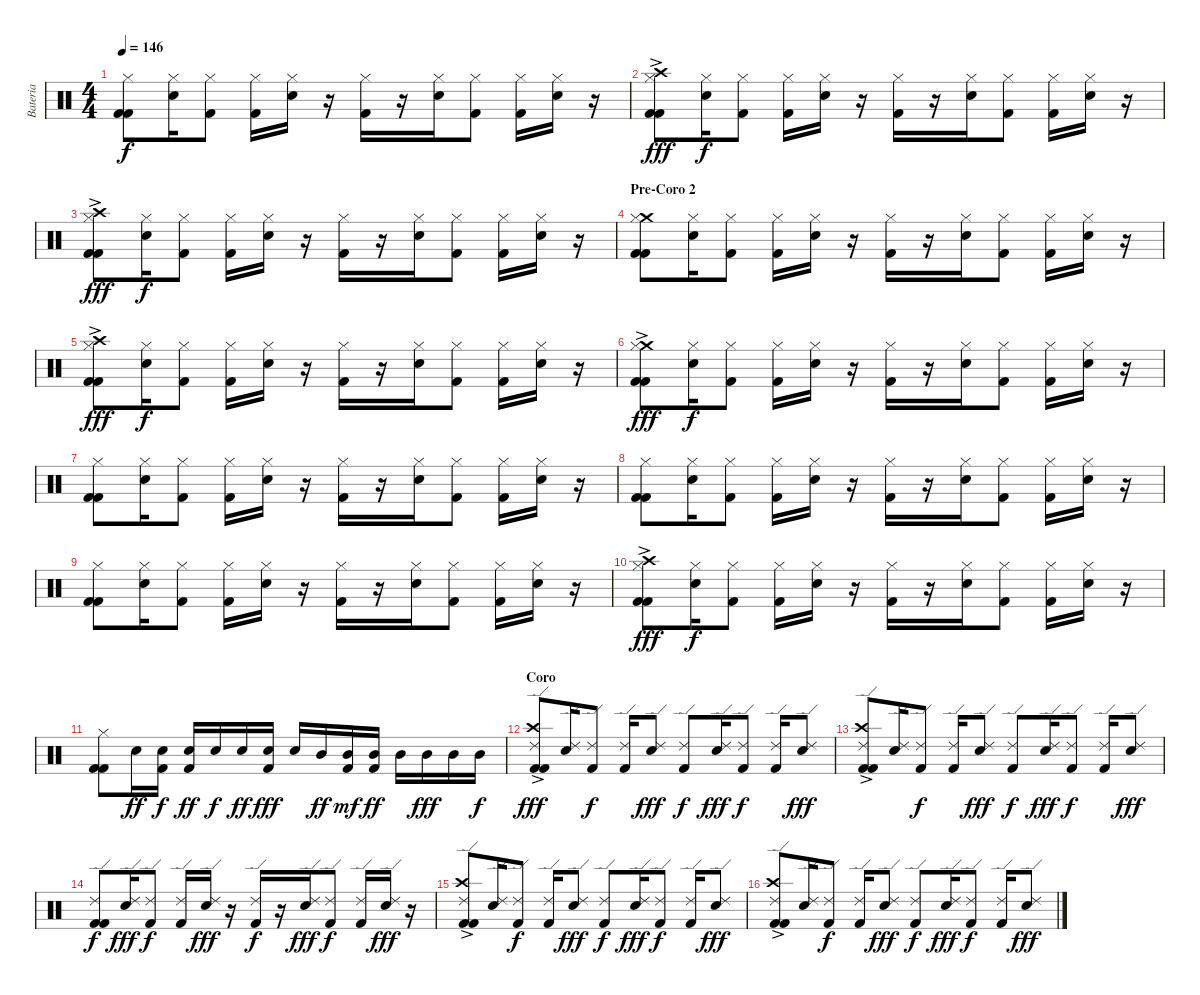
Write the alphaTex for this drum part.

\track ("Bateria" "Bateria") {instrument percussion}
\staff {score}
\articulation defaults
\ts (4 4)
\tempo 146
\clef neutral
\ks c
("Hi-Hat (closed)" "Kick (hit) 2" "Kick (hit) 2").8{dy f} ("Hi-Hat (closed)" "Electric Snare (hit)").16 ("Hi-Hat (closed)" "Kick (hit) 2").8 ("Hi-Hat (closed)" "Kick (hit) 2").16 ("Hi-Hat (closed)" "Electric Snare (hit)").16 r.16 ("Hi-Hat (closed)" "Kick (hit) 2").16 r.16 ("Hi-Hat (closed)" "Electric Snare (hit)").16 ("Hi-Hat (closed)" "Kick (hit) 2").8 ("Hi-Hat (closed)" "Kick (hit) 2").16 ("Hi-Hat (closed)" "Electric Snare (hit)").16 r.16 |
("Crash high (hit)"{ac} "Hi-Hat (closed)" "Kick (hit) 2" "Kick (hit) 2").8{dy fff} ("Hi-Hat (closed)" "Electric Snare (hit)").16{dy f} ("Hi-Hat (closed)" "Kick (hit) 2").8 ("Hi-Hat (closed)" "Kick (hit) 2").16 ("Hi-Hat (closed)" "Electric Snare (hit)").16 r.16 ("Hi-Hat (closed)" "Kick (hit) 2").16 r.16 ("Hi-Hat (closed)" "Electric Snare (hit)").16 ("Hi-Hat (closed)" "Kick (hit) 2").8 ("Hi-Hat (closed)" "Kick (hit) 2").16 ("Hi-Hat (closed)" "Electric Snare (hit)").16 r.16 |
("Crash high (hit)"{ac} "Hi-Hat (closed)" "Kick (hit) 2" "Kick (hit) 2").8{dy fff} ("Hi-Hat (closed)" "Electric Snare (hit)").16{dy f} ("Hi-Hat (closed)" "Kick (hit) 2").8 ("Hi-Hat (closed)" "Kick (hit) 2").16 ("Hi-Hat (closed)" "Electric Snare (hit)").16 r.16 ("Hi-Hat (closed)" "Kick (hit) 2").16 r.16 ("Hi-Hat (closed)" "Electric Snare (hit)").16 ("Hi-Hat (closed)" "Kick (hit) 2").8 ("Hi-Hat (closed)" "Kick (hit) 2").16 ("Hi-Hat (closed)" "Electric Snare (hit)").16 r.16 |
\section ("" "Pre-Coro 2")
("Crash medium (hit)" "Hi-Hat (closed)" "Kick (hit) 2" "Kick (hit) 2").8 ("Hi-Hat (closed)" "Electric Snare (hit)").16 ("Hi-Hat (closed)" "Kick (hit) 2").8 ("Hi-Hat (closed)" "Kick (hit) 2").16 ("Hi-Hat (closed)" "Electric Snare (hit)").16 r.16 ("Hi-Hat (closed)" "Kick (hit) 2").16 r.16 ("Hi-Hat (closed)" "Electric Snare (hit)").16 ("Hi-Hat (closed)" "Kick (hit) 2").8 ("Hi-Hat (closed)" "Kick (hit) 2").16 ("Hi-Hat (closed)" "Electric Snare (hit)").16 r.16 |
("Crash high (hit)"{ac} "Hi-Hat (closed)" "Kick (hit) 2" "Kick (hit) 2").8{dy fff} ("Hi-Hat (closed)" "Electric Snare (hit)").16{dy f} ("Hi-Hat (closed)" "Kick (hit) 2").8 ("Hi-Hat (closed)" "Kick (hit) 2").16 ("Hi-Hat (closed)" "Electric Snare (hit)").16 r.16 ("Hi-Hat (closed)" "Kick (hit) 2").16 r.16 ("Hi-Hat (closed)" "Electric Snare (hit)").16 ("Hi-Hat (closed)" "Kick (hit) 2").8 ("Hi-Hat (closed)" "Kick (hit) 2").16 ("Hi-Hat (closed)" "Electric Snare (hit)").16 r.16 |
("Crash medium (hit)"{ac} "Hi-Hat (closed)" "Kick (hit) 2" "Kick (hit) 2").8{dy fff} ("Hi-Hat (closed)" "Electric Snare (hit)").16{dy f} ("Hi-Hat (closed)" "Kick (hit) 2").8 ("Hi-Hat (closed)" "Kick (hit) 2").16 ("Hi-Hat (closed)" "Electric Snare (hit)").16 r.16 ("Hi-Hat (closed)" "Kick (hit) 2").16 r.16 ("Hi-Hat (closed)" "Electric Snare (hit)").16 ("Hi-Hat (closed)" "Kick (hit) 2").8 ("Hi-Hat (closed)" "Kick (hit) 2").16 ("Hi-Hat (closed)" "Electric Snare (hit)").16 r.16 |
("Hi-Hat (closed)" "Kick (hit) 2" "Kick (hit) 2").8 ("Hi-Hat (closed)" "Electric Snare (hit)").16 ("Hi-Hat (closed)" "Kick (hit) 2").8 ("Hi-Hat (closed)" "Kick (hit) 2").16 ("Hi-Hat (closed)" "Electric Snare (hit)").16 r.16 ("Hi-Hat (closed)" "Kick (hit) 2").16 r.16 ("Hi-Hat (closed)" "Electric Snare (hit)").16 ("Hi-Hat (closed)" "Kick (hit) 2").8 ("Hi-Hat (closed)" "Kick (hit) 2").16 ("Hi-Hat (closed)" "Electric Snare (hit)").16 r.16 |
("Hi-Hat (closed)" "Kick (hit) 2" "Kick (hit) 2").8 ("Hi-Hat (closed)" "Electric Snare (hit)").16 ("Hi-Hat (closed)" "Kick (hit) 2").8 ("Hi-Hat (closed)" "Kick (hit) 2").16 ("Hi-Hat (closed)" "Electric Snare (hit)").16 r.16 ("Hi-Hat (closed)" "Kick (hit) 2").16 r.16 ("Hi-Hat (closed)" "Electric Snare (hit)").16 ("Hi-Hat (closed)" "Kick (hit) 2").8 ("Hi-Hat (closed)" "Kick (hit) 2").16 ("Hi-Hat (closed)" "Electric Snare (hit)").16 r.16 |
("Hi-Hat (closed)" "Kick (hit) 2" "Kick (hit) 2").8 ("Hi-Hat (closed)" "Electric Snare (hit)").16 ("Hi-Hat (closed)" "Kick (hit) 2").8 ("Hi-Hat (closed)" "Kick (hit) 2").16 ("Hi-Hat (closed)" "Electric Snare (hit)").16 r.16 ("Hi-Hat (closed)" "Kick (hit) 2").16 r.16 ("Hi-Hat (closed)" "Electric Snare (hit)").16 ("Hi-Hat (closed)" "Kick (hit) 2").8 ("Hi-Hat (closed)" "Kick (hit) 2").16 ("Hi-Hat (closed)" "Electric Snare (hit)").16 r.16 |
("Crash high (hit)"{ac} "Hi-Hat (closed)" "Kick (hit) 2" "Kick (hit) 2").8{dy fff} ("Hi-Hat (closed)" "Electric Snare (hit)").16{dy f} ("Hi-Hat (closed)" "Kick (hit) 2").8 ("Hi-Hat (closed)" "Kick (hit) 2").16 ("Hi-Hat (closed)" "Electric Snare (hit)").16 r.16 ("Hi-Hat (closed)" "Kick (hit) 2").16 r.16 ("Hi-Hat (closed)" "Electric Snare (hit)").16 ("Hi-Hat (closed)" "Kick (hit) 2").8 ("Hi-Hat (closed)" "Kick (hit) 2").16 ("Hi-Hat (closed)" "Electric Snare (hit)").16 r.16 |
("Hi-Hat (closed)" "Kick (hit) 2" "Kick (hit) 2").8 "Electric Snare (hit)".16{dy ff} ("Electric Snare (hit)" "Kick (hit) 2").16{dy f} ("Electric Snare (hit)" "Kick (hit) 2").16{dy ff} "Electric Snare (hit)".16{dy f} "Electric Snare (hit)".16{dy ff} ("Electric Snare (hit)" "Kick (hit) 2").16{dy fff} "Electric Snare (hit)".16 "Mid Tom (hit)".16{dy ff} ("Mid Tom (hit)" "Kick (hit) 2").16{dy mf} ("Mid Tom (hit)" "Kick (hit) 2").16{dy ff} "Mid Tom (hit)".16 "Mid Tom (hit)".16{dy fff} "Mid Tom (hit)".16 "Mid Tom (hit)".16{dy f} |
\section ("" "Coro")
("Crash high (hit)"{ac} "Ride (edge) 2" "Kick (hit) 2" "Kick (hit) 2").8{dy fff} ("Ride (edge) 2" "Electric Snare (hit)").16 ("Ride (edge) 2" "Kick (hit) 2").8{dy f} ("Ride (edge) 2" "Kick (hit) 2").16 ("Ride (edge) 2" "Electric Snare (hit)").8{dy fff} ("Ride (edge) 2" "Kick (hit) 2").8{dy f} ("Ride (edge) 2" "Electric Snare (hit)").16{dy fff} ("Ride (edge) 2" "Kick (hit) 2").8{dy f} ("Ride (edge) 2" "Kick (hit) 2").16 ("Ride (edge) 2" "Electric Snare (hit)").8{dy fff} |
("Crash high (hit)"{ac} "Ride (edge) 2" "Kick (hit) 2" "Kick (hit) 2").8 ("Ride (edge) 2" "Electric Snare (hit)").16 ("Ride (edge) 2" "Kick (hit) 2").8{dy f} ("Ride (edge) 2" "Kick (hit) 2").16 ("Ride (edge) 2" "Electric Snare (hit)").8{dy fff} ("Ride (edge) 2" "Kick (hit) 2").8{dy f} ("Ride (edge) 2" "Electric Snare (hit)").16{dy fff} ("Ride (edge) 2" "Kick (hit) 2").8{dy f} ("Ride (edge) 2" "Kick (hit) 2").16 ("Ride (edge) 2" "Electric Snare (hit)").8{dy fff} |
("Ride (edge) 2" "Kick (hit) 2" "Kick (hit) 2").8{dy f} ("Ride (edge) 2" "Electric Snare (hit)").16{dy fff} ("Ride (edge) 2" "Kick (hit) 2").8{dy f} ("Ride (edge) 2" "Kick (hit) 2").16 ("Ride (edge) 2" "Electric Snare (hit)").16{dy fff} r.16 ("Ride (edge) 2" "Kick (hit) 2").16{dy f} r.16 ("Ride (edge) 2" "Electric Snare (hit)").16{dy fff} ("Ride (edge) 2" "Kick (hit) 2").8{dy f} ("Ride (edge) 2" "Kick (hit) 2").16 ("Ride (edge) 2" "Electric Snare (hit)").16{dy fff} r.16 |
("Crash high (hit)"{ac} "Ride (edge) 2" "Kick (hit) 2" "Kick (hit) 2").8 ("Ride (edge) 2" "Electric Snare (hit)").16 ("Ride (edge) 2" "Kick (hit) 2").8{dy f} ("Ride (edge) 2" "Kick (hit) 2").16 ("Ride (edge) 2" "Electric Snare (hit)").8{dy fff} ("Ride (edge) 2" "Kick (hit) 2").8{dy f} ("Ride (edge) 2" "Electric Snare (hit)").16{dy fff} ("Ride (edge) 2" "Kick (hit) 2").8{dy f} ("Ride (edge) 2" "Kick (hit) 2").16 ("Ride (edge) 2" "Electric Snare (hit)").8{dy fff} |
("Crash high (hit)"{ac} "Ride (edge) 2" "Kick (hit) 2" "Kick (hit) 2").8 ("Ride (edge) 2" "Electric Snare (hit)").16 ("Ride (edge) 2" "Kick (hit) 2").8{dy f} ("Ride (edge) 2" "Kick (hit) 2").16 ("Ride (edge) 2" "Electric Snare (hit)").8{dy fff} ("Ride (edge) 2" "Kick (hit) 2").8{dy f} ("Ride (edge) 2" "Electric Snare (hit)").16{dy fff} ("Ride (edge) 2" "Kick (hit) 2").8{dy f} ("Ride (edge) 2" "Kick (hit) 2").16 ("Ride (edge) 2" "Electric Snare (hit)").8{dy fff}
